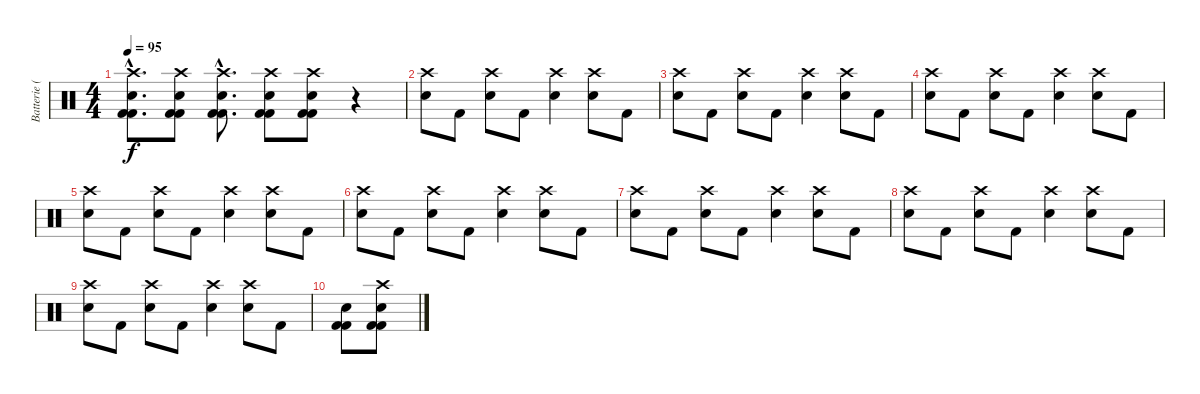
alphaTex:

\track ("Batterie (Hervé)" "Batterie (") {instrument percussion}
\staff {score}
\articulation defaults
\ts (4 4)
\tempo 95
\clef neutral
\ks c
("Kick (hit) 2"{hac} "Kick (hit) 2"{hac} "Snare (hit) 2"{hac} "Crash high (hit)"{hac}).8{d dy f} ("Kick (hit) 2" "Kick (hit) 2" "Snare (hit) 2" "Crash high (hit)").8 ("Kick (hit) 2"{hac} "Kick (hit) 2"{hac} "Snare (hit) 2"{hac} "Crash high (hit)"{hac}).8{d} ("Kick (hit) 2" "Kick (hit) 2" "Snare (hit) 2" "Crash high (hit)").8 ("Kick (hit) 2" "Kick (hit) 2" "Snare (hit) 2" "Crash high (hit)").8 r.4 |
("Snare (hit) 2" "Crash high (hit)").8 "Kick (hit) 2".8 ("Snare (hit) 2" "Crash high (hit)").8 "Kick (hit) 2".8 ("Snare (hit) 2" "Crash high (hit)").4 ("Snare (hit) 2" "Crash high (hit)").8 "Kick (hit) 2".8 |
("Snare (hit) 2" "Crash high (hit)").8 "Kick (hit) 2".8 ("Snare (hit) 2" "Crash high (hit)").8 "Kick (hit) 2".8 ("Snare (hit) 2" "Crash high (hit)").4 ("Snare (hit) 2" "Crash high (hit)").8 "Kick (hit) 2".8 |
("Snare (hit) 2" "Crash high (hit)").8 "Kick (hit) 2".8 ("Snare (hit) 2" "Crash high (hit)").8 "Kick (hit) 2".8 ("Snare (hit) 2" "Crash high (hit)").4 ("Snare (hit) 2" "Crash high (hit)").8 "Kick (hit) 2".8 |
("Snare (hit) 2" "Crash high (hit)").8 "Kick (hit) 2".8 ("Snare (hit) 2" "Crash high (hit)").8 "Kick (hit) 2".8 ("Snare (hit) 2" "Crash high (hit)").4 ("Snare (hit) 2" "Crash high (hit)").8 "Kick (hit) 2".8 |
("Snare (hit) 2" "Crash high (hit)").8 "Kick (hit) 2".8 ("Snare (hit) 2" "Crash high (hit)").8 "Kick (hit) 2".8 ("Snare (hit) 2" "Crash high (hit)").4 ("Snare (hit) 2" "Crash high (hit)").8 "Kick (hit) 2".8 |
("Snare (hit) 2" "Crash high (hit)").8 "Kick (hit) 2".8 ("Snare (hit) 2" "Crash high (hit)").8 "Kick (hit) 2".8 ("Snare (hit) 2" "Crash high (hit)").4 ("Snare (hit) 2" "Crash high (hit)").8 "Kick (hit) 2".8 |
("Snare (hit) 2" "Crash high (hit)").8 "Kick (hit) 2".8 ("Snare (hit) 2" "Crash high (hit)").8 "Kick (hit) 2".8 ("Snare (hit) 2" "Crash high (hit)").4 ("Snare (hit) 2" "Crash high (hit)").8 "Kick (hit) 2".8 |
("Snare (hit) 2" "Crash high (hit)").8 "Kick (hit) 2".8 ("Snare (hit) 2" "Crash high (hit)").8 "Kick (hit) 2".8 ("Snare (hit) 2" "Crash high (hit)").4 ("Snare (hit) 2" "Crash high (hit)").8 "Kick (hit) 2".8 |
("Kick (hit) 2" "Kick (hit) 2" "Snare (hit) 2").8 ("Kick (hit) 2" "Kick (hit) 2" "Snare (hit) 2" "Crash high (hit)").8
